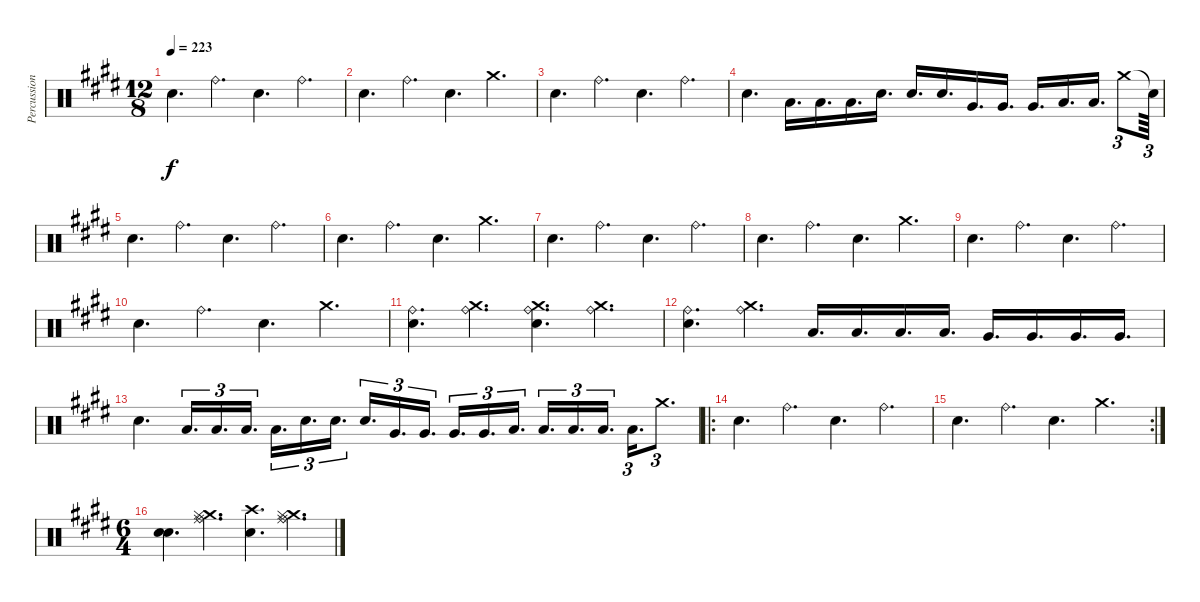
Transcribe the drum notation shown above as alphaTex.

\track ("Percussion" "Percussion") {instrument percussion}
\staff {score}
\articulation defaults
\ts (12 8)
\tempo 223
\clef neutral
\ks e "Snare (hit) 2".4{d dy f} "Ride (bell)".4{d} "Snare (hit) 2".4{d} "Ride (bell)".4{d}
|
"Snare (hit) 2".4{d} "Ride (bell)".4{d} "Snare (hit) 2".4{d} "Crash medium (hit)".4{d} |
"Snare (hit) 2".4{d} "Ride (bell)".4{d} "Snare (hit) 2".4{d} "Ride (bell)".4{d} |
"Snare (hit) 2".4{d} "Low Tom (hit)".16{d} "Low Tom (hit)".16{d} "Low Tom (hit)".16{d} "Snare (hit) 2".16{d} "Snare (hit) 2".16{d} "Snare (hit) 2".16{d} "Very Low Tom (hit)".16{d} "Very Low Tom (hit)".16{d} "Very Low Tom (hit)".16{d} "Low Floor Tom (hit)".16{d} "Low Floor Tom (hit)".16{d} "Crash medium (hit)".8{tu (3 2)} "Snare (hit)"{t}.64{tu (3 2)} |
"Snare (hit) 2".4{d} "Ride (bell)".4{d} "Snare (hit) 2".4{d} "Ride (bell)".4{d} |
"Snare (hit) 2".4{d} "Ride (bell)".4{d} "Snare (hit) 2".4{d} "Crash medium (hit)".4{d} |
"Snare (hit) 2".4{d} "Ride (bell)".4{d} "Snare (hit) 2".4{d} "Ride (bell)".4{d} |
"Snare (hit) 2".4{d} "Ride (bell)".4{d} "Snare (hit) 2".4{d} "Crash medium (hit)".4{d} |
"Snare (hit) 2".4{d} "Ride (bell)".4{d} "Snare (hit) 2".4{d} "Ride (bell)".4{d} |
"Snare (hit) 2".4{d} "Ride (bell)".4{d} "Snare (hit) 2".4{d} "Crash medium (hit)".4{d} |
("Ride (bell)" "Snare (hit) 2").4{d} ("Crash medium (hit)" "Ride (bell)").4{d} ("Ride (bell)" "Crash medium (hit)" "Snare (hit) 2").4{d} ("Crash medium (hit)" "Ride (bell)").4{d} |
("Ride (bell)" "Snare (hit) 2").4{d} ("Crash medium (hit)" "Ride (bell)").4{d} "Low Tom (hit)".16{d} "Low Tom (hit)".16{d} "Low Tom (hit)".16{d} "Low Tom (hit)".16{d} "Very Low Tom (hit)".16{d} "Very Low Tom (hit)".16{d} "Very Low Tom (hit)".16{d} "Very Low Tom (hit)".16{d} |
"Snare (hit) 2".4{d} "Low Tom (hit)".16{d tu (3 2)} "Low Tom (hit)".16{d tu (3 2)} "Low Tom (hit)".16{d tu (3 2)} "Low Tom (hit)".16{d tu (3 2)} "Snare (hit) 2".16{d tu (3 2)} "Snare (hit) 2".16{d tu (3 2)} "Snare (hit) 2".16{d tu (3 2)} "Very Low Tom (hit)".16{d tu (3 2)} "Very Low Tom (hit)".16{d tu (3 2)} "Very Low Tom (hit)".16{d tu (3 2)} "Very Low Tom (hit)".16{d tu (3 2)} "Low Floor Tom (hit)".16{d tu (3 2)} "Low Floor Tom (hit)".16{d tu (3 2)} "Low Floor Tom (hit)".16{d tu (3 2)} "Low Floor Tom (hit)".16{d tu (3 2)} "Low Floor Tom (hit)".16{d tu (3 2)} "Crash medium (hit)".8{d tu (3 2)} |
\ro "Snare (hit) 2".4{d} "Ride (bell)".4{d} "Snare (hit) 2".4{d} "Ride (bell)".4{d}
|
\rc 2 "Snare (hit) 2".4{d} "Ride (bell)".4{d} "Snare (hit) 2".4{d} "Crash medium (hit)".4{d}
|
\ts (6 4)
("Snare (hit) 2" "Snare (hit) 2").4{d} ("Ride (middle)" "Crash medium (hit)" "Hi-Hat (closed)" "Ride (bell)").4{d} ("Snare (hit) 2" "Crash high (hit)").4{d} ("Ride (middle)" "Crash medium (hit)" "Hi-Hat (closed)" "Ride (bell)").4{d}
